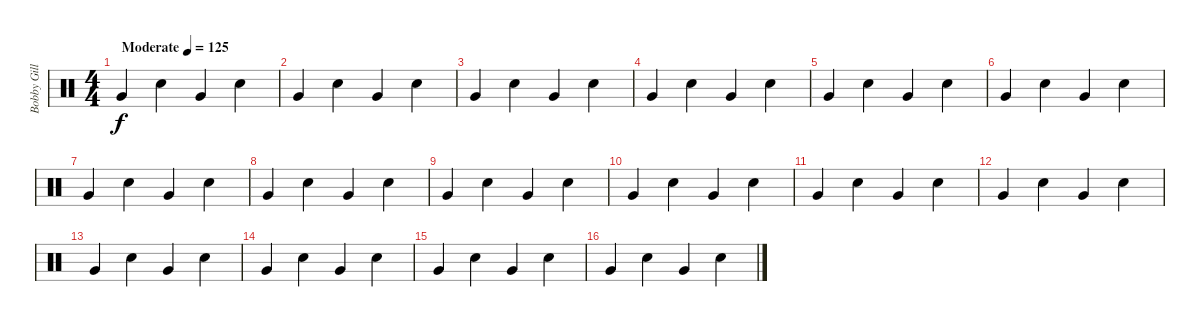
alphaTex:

\track ("Bobby Gillespie" "Bobby Gill") {instrument percussion}
\staff {score}
\articulation defaults
\ts (4 4)
\tempo (125 "Moderate")
\clef neutral
\ks c "Very Low Tom (hit)".4{dy f} "Electric Snare (hit)".4 "Very Low Tom (hit)".4 "Electric Snare (hit)".4
|
"Very Low Tom (hit)".4 "Electric Snare (hit)".4 "Very Low Tom (hit)".4 "Electric Snare (hit)".4 |
"Very Low Tom (hit)".4 "Electric Snare (hit)".4 "Very Low Tom (hit)".4 "Electric Snare (hit)".4 |
"Very Low Tom (hit)".4 "Electric Snare (hit)".4 "Very Low Tom (hit)".4 "Electric Snare (hit)".4 |
"Very Low Tom (hit)".4 "Electric Snare (hit)".4 "Very Low Tom (hit)".4 "Electric Snare (hit)".4 |
"Very Low Tom (hit)".4 "Electric Snare (hit)".4 "Very Low Tom (hit)".4 "Electric Snare (hit)".4 |
"Very Low Tom (hit)".4 "Electric Snare (hit)".4 "Very Low Tom (hit)".4 "Electric Snare (hit)".4 |
"Very Low Tom (hit)".4 "Electric Snare (hit)".4 "Very Low Tom (hit)".4 "Electric Snare (hit)".4 |
"Very Low Tom (hit)".4 "Electric Snare (hit)".4 "Very Low Tom (hit)".4 "Electric Snare (hit)".4 |
"Very Low Tom (hit)".4 "Electric Snare (hit)".4 "Very Low Tom (hit)".4 "Electric Snare (hit)".4 |
"Very Low Tom (hit)".4 "Electric Snare (hit)".4 "Very Low Tom (hit)".4 "Electric Snare (hit)".4 |
"Very Low Tom (hit)".4 "Electric Snare (hit)".4 "Very Low Tom (hit)".4 "Electric Snare (hit)".4 |
"Very Low Tom (hit)".4 "Electric Snare (hit)".4 "Very Low Tom (hit)".4 "Electric Snare (hit)".4 |
"Very Low Tom (hit)".4 "Electric Snare (hit)".4 "Very Low Tom (hit)".4 "Electric Snare (hit)".4 |
"Very Low Tom (hit)".4 "Electric Snare (hit)".4 "Very Low Tom (hit)".4 "Electric Snare (hit)".4 |
"Very Low Tom (hit)".4 "Electric Snare (hit)".4 "Very Low Tom (hit)".4 "Electric Snare (hit)".4
